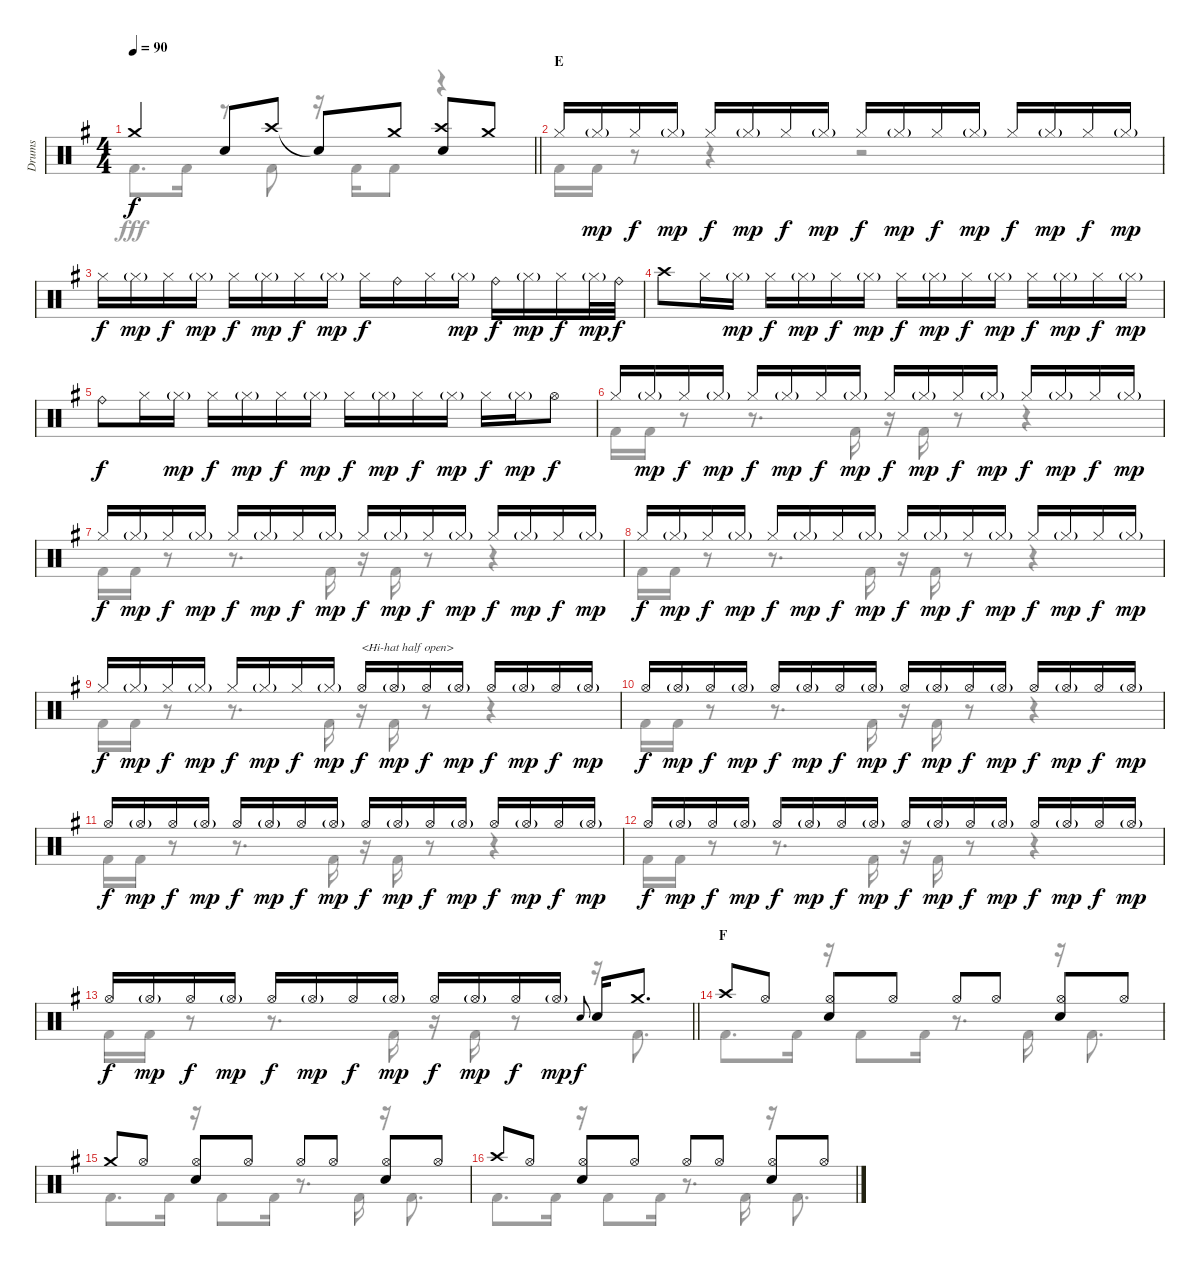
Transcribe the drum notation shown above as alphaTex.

\track ("Drums" "Drums") {instrument percussion}
\staff {score}
\articulation defaults
\voice
\ts (4 4)
\tempo 90
\clef neutral
\barLineRight lightlight
\ks g "Crash medium (hit)".4{dy f} "Snare (hit) 2".8 "Crash high (hit)".8 "Snare (hit)"{t}.8 "Crash medium (hit)".8
("Crash high (hit)" "Snare (hit) 2").8 "Crash medium (hit)".8 |
\section ("" "E")
"Hi-Hat (closed)".16 "Hi-Hat (closed)"{g}.16{dy mp} "Hi-Hat (closed)".16{dy f} "Hi-Hat (closed)"{g}.16{dy mp} "Hi-Hat (closed)".16{dy f} "Hi-Hat (closed)"{g}.16{dy mp} "Hi-Hat (closed)".16{dy f} "Hi-Hat (closed)"{g}.16{dy mp} "Hi-Hat (closed)".16{dy f} "Hi-Hat (closed)"{g}.16{dy mp} "Hi-Hat (closed)".16{dy f} "Hi-Hat (closed)"{g}.16{dy mp} "Hi-Hat (closed)".16{dy f} "Hi-Hat (closed)"{g}.16{dy mp} "Hi-Hat (closed)".16{dy f} "Hi-Hat (closed)"{g}.16{dy mp} |
"Hi-Hat (closed)".16{dy f} "Hi-Hat (closed)"{g}.16{dy mp} "Hi-Hat (closed)".16{dy f} "Hi-Hat (closed)"{g}.16{dy mp} "Hi-Hat (closed)".16{dy f} "Hi-Hat (closed)"{g}.16{dy mp} "Hi-Hat (closed)".16{dy f} "Hi-Hat (closed)"{g}.16{dy mp} "Hi-Hat (closed)".16{dy f} "Ride (bell)".16 "Hi-Hat (closed)".16 "Hi-Hat (closed)"{g}.16{dy mp} "Ride (bell)".16{dy f} "Hi-Hat (closed)"{g}.16{dy mp} "Hi-Hat (closed)".16{dy f} "Hi-Hat (closed)"{g}.32{dy mp} "Ride (bell)".32{dy f} |
"Crash high (hit)".8 "Hi-Hat (closed)".16 "Hi-Hat (closed)"{g}.16{dy mp} "Hi-Hat (closed)".16{dy f} "Hi-Hat (closed)"{g}.16{dy mp} "Hi-Hat (closed)".16{dy f} "Hi-Hat (closed)"{g}.16{dy mp} "Hi-Hat (closed)".16{dy f} "Hi-Hat (closed)"{g}.16{dy mp} "Hi-Hat (closed)".16{dy f} "Hi-Hat (closed)"{g}.16{dy mp} "Hi-Hat (closed)".16{dy f} "Hi-Hat (closed)"{g}.16{dy mp} "Hi-Hat (closed)".16{dy f} "Hi-Hat (closed)"{g}.16{dy mp} |
"Ride (bell)".8{dy f} "Hi-Hat (closed)".16 "Hi-Hat (closed)"{g}.16{dy mp} "Hi-Hat (closed)".16{dy f} "Hi-Hat (closed)"{g}.16{dy mp} "Hi-Hat (closed)".16{dy f} "Hi-Hat (closed)"{g}.16{dy mp} "Hi-Hat (closed)".16{dy f} "Hi-Hat (closed)"{g}.16{dy mp} "Hi-Hat (closed)".16{dy f} "Hi-Hat (closed)"{g}.16{dy mp} "Hi-Hat (closed)".16{dy f} "Hi-Hat (closed)"{g}.16{dy mp} "Hi-Hat (open)".8{dy f} |
"Hi-Hat (closed)".16 "Hi-Hat (closed)"{g}.16{dy mp} "Hi-Hat (closed)".16{dy f} "Hi-Hat (closed)"{g}.16{dy mp} "Hi-Hat (closed)".16{dy f} "Hi-Hat (closed)"{g}.16{dy mp} "Hi-Hat (closed)".16{dy f} "Hi-Hat (closed)"{g}.16{dy mp} "Hi-Hat (closed)".16{dy f} "Hi-Hat (closed)"{g}.16{dy mp} "Hi-Hat (closed)".16{dy f} "Hi-Hat (closed)"{g}.16{dy mp} "Hi-Hat (closed)".16{dy f} "Hi-Hat (closed)"{g}.16{dy mp} "Hi-Hat (closed)".16{dy f} "Hi-Hat (closed)"{g}.16{dy mp} |
"Hi-Hat (closed)".16{dy f} "Hi-Hat (closed)"{g}.16{dy mp} "Hi-Hat (closed)".16{dy f} "Hi-Hat (closed)"{g}.16{dy mp} "Hi-Hat (closed)".16{dy f} "Hi-Hat (closed)"{g}.16{dy mp} "Hi-Hat (closed)".16{dy f} "Hi-Hat (closed)"{g}.16{dy mp} "Hi-Hat (closed)".16{dy f} "Hi-Hat (closed)"{g}.16{dy mp} "Hi-Hat (closed)".16{dy f} "Hi-Hat (closed)"{g}.16{dy mp} "Hi-Hat (closed)".16{dy f} "Hi-Hat (closed)"{g}.16{dy mp} "Hi-Hat (closed)".16{dy f} "Hi-Hat (closed)"{g}.16{dy mp} |
"Hi-Hat (closed)".16{dy f} "Hi-Hat (closed)"{g}.16{dy mp} "Hi-Hat (closed)".16{dy f} "Hi-Hat (closed)"{g}.16{dy mp} "Hi-Hat (closed)".16{dy f} "Hi-Hat (closed)"{g}.16{dy mp} "Hi-Hat (closed)".16{dy f} "Hi-Hat (closed)"{g}.16{dy mp} "Hi-Hat (closed)".16{dy f} "Hi-Hat (closed)"{g}.16{dy mp} "Hi-Hat (closed)".16{dy f} "Hi-Hat (closed)"{g}.16{dy mp} "Hi-Hat (closed)".16{dy f} "Hi-Hat (closed)"{g}.16{dy mp} "Hi-Hat (closed)".16{dy f} "Hi-Hat (closed)"{g}.16{dy mp} |
"Hi-Hat (closed)".16{dy f} "Hi-Hat (closed)"{g}.16{dy mp} "Hi-Hat (closed)".16{dy f} "Hi-Hat (closed)"{g}.16{dy mp} "Hi-Hat (closed)".16{dy f} "Hi-Hat (closed)"{g}.16{dy mp} "Hi-Hat (closed)".16{dy f} "Hi-Hat (closed)"{g}.16{dy mp} "Hi-Hat (open)".16{txt "<Hi-hat half open>" dy f} "Hi-Hat (open)"{g}.16{dy mp} "Hi-Hat (open)".16{dy f} "Hi-Hat (open)"{g}.16{dy mp} "Hi-Hat (open)".16{dy f} "Hi-Hat (open)"{g}.16{dy mp} "Hi-Hat (open)".16{dy f} "Hi-Hat (open)"{g}.16{dy mp} |
"Hi-Hat (open)".16{dy f} "Hi-Hat (open)"{g}.16{dy mp} "Hi-Hat (open)".16{dy f} "Hi-Hat (open)"{g}.16{dy mp} "Hi-Hat (open)".16{dy f} "Hi-Hat (open)"{g}.16{dy mp} "Hi-Hat (open)".16{dy f} "Hi-Hat (open)"{g}.16{dy mp} "Hi-Hat (open)".16{dy f} "Hi-Hat (open)"{g}.16{dy mp} "Hi-Hat (open)".16{dy f} "Hi-Hat (open)"{g}.16{dy mp} "Hi-Hat (open)".16{dy f} "Hi-Hat (open)"{g}.16{dy mp} "Hi-Hat (open)".16{dy f} "Hi-Hat (open)"{g}.16{dy mp} |
"Hi-Hat (open)".16{dy f} "Hi-Hat (open)"{g}.16{dy mp} "Hi-Hat (open)".16{dy f} "Hi-Hat (open)"{g}.16{dy mp} "Hi-Hat (open)".16{dy f} "Hi-Hat (open)"{g}.16{dy mp} "Hi-Hat (open)".16{dy f} "Hi-Hat (open)"{g}.16{dy mp} "Hi-Hat (open)".16{dy f} "Hi-Hat (open)"{g}.16{dy mp} "Hi-Hat (open)".16{dy f} "Hi-Hat (open)"{g}.16{dy mp} "Hi-Hat (open)".16{dy f} "Hi-Hat (open)"{g}.16{dy mp} "Hi-Hat (open)".16{dy f} "Hi-Hat (open)"{g}.16{dy mp} |
"Hi-Hat (open)".16{dy f} "Hi-Hat (open)"{g}.16{dy mp} "Hi-Hat (open)".16{dy f} "Hi-Hat (open)"{g}.16{dy mp} "Hi-Hat (open)".16{dy f} "Hi-Hat (open)"{g}.16{dy mp} "Hi-Hat (open)".16{dy f} "Hi-Hat (open)"{g}.16{dy mp} "Hi-Hat (open)".16{dy f} "Hi-Hat (open)"{g}.16{dy mp} "Hi-Hat (open)".16{dy f} "Hi-Hat (open)"{g}.16{dy mp} "Hi-Hat (open)".16{dy f} "Hi-Hat (open)"{g}.16{dy mp} "Hi-Hat (open)".16{dy f} "Hi-Hat (open)"{g}.16{dy mp} |
\barLineRight lightlight "Hi-Hat (open)".16{dy f} "Hi-Hat (open)"{g}.16{dy mp} "Hi-Hat (open)".16{dy f} "Hi-Hat (open)"{g}.16{dy mp} "Hi-Hat (open)".16{dy f} "Hi-Hat (open)"{g}.16{dy mp} "Hi-Hat (open)".16{dy f} "Hi-Hat (open)"{g}.16{dy mp} "Hi-Hat (open)".16{dy f} "Hi-Hat (open)"{g}.16{dy mp} "Hi-Hat (open)".16{dy f} "Hi-Hat (open)"{g}.16{dy mp} "Snare (hit) 2".8{gr onbeat dy f} "Snare (hit) 2".16 "Crash medium (hit)".8{d}
|
\section ("" "F")
"Crash high (hit)".8 "Hi-Hat (open)".8 ("Hi-Hat (open)" "Snare (hit) 2").8 "Hi-Hat (open)".8 "Hi-Hat (open)".8 "Hi-Hat (open)".8 ("Hi-Hat (open)" "Snare (hit) 2").8 "Hi-Hat (open)".8 |
"Crash medium (hit)".8 "Hi-Hat (open)".8 ("Hi-Hat (open)" "Snare (hit) 2").8 "Hi-Hat (open)".8 "Hi-Hat (open)".8 "Hi-Hat (open)".8 ("Hi-Hat (open)" "Snare (hit) 2").8 "Hi-Hat (open)".8 |
"Crash high (hit)".8 "Hi-Hat (open)".8 ("Hi-Hat (open)" "Snare (hit) 2").8 "Hi-Hat (open)".8 "Hi-Hat (open)".8 "Hi-Hat (open)".8 ("Hi-Hat (open)" "Snare (hit) 2").8 "Hi-Hat (open)".8
\voice
\clef neutral
\ottava regular
\simile none
\barLineRight lightlight
\ks g "Kick (hit) 2".8{d dy fff} "Kick (hit) 2".16
r.8 "Kick (hit) 2".8 r.16 "Kick (hit) 2".16 "Kick (hit) 2".8 r.4 |
"Kick (hit) 2".16 "Kick (hit) 2".16 r.8 r.4 r.2 |
|
|
|
"Kick (hit) 2".16 "Kick (hit) 2".16 r.8 r.8{d} "Kick (hit) 2".16 r.16 "Kick (hit) 2".16 r.8 r.4 |
"Kick (hit) 2".16 "Kick (hit) 2".16 r.8 r.8{d} "Kick (hit) 2".16 r.16 "Kick (hit) 2".16 r.8 r.4 |
"Kick (hit) 2".16 "Kick (hit) 2".16 r.8 r.8{d} "Kick (hit) 2".16 r.16 "Kick (hit) 2".16 r.8 r.4 |
"Kick (hit) 2".16 "Kick (hit) 2".16 r.8 r.8{d} "Kick (hit) 2".16 r.16 "Kick (hit) 2".16 r.8 r.4 |
"Kick (hit) 2".16 "Kick (hit) 2".16 r.8 r.8{d} "Kick (hit) 2".16 r.16 "Kick (hit) 2".16 r.8 r.4 |
"Kick (hit) 2".16 "Kick (hit) 2".16 r.8 r.8{d} "Kick (hit) 2".16 r.16 "Kick (hit) 2".16 r.8 r.4 |
"Kick (hit) 2".16 "Kick (hit) 2".16 r.8 r.8{d} "Kick (hit) 2".16 r.16 "Kick (hit) 2".16 r.8 r.4 |
\barLineRight lightlight "Kick (hit) 2".16 "Kick (hit) 2".16
r.8 r.8{d} "Kick (hit) 2".16 r.16 "Kick (hit) 2".16 r.8 r.16 "Kick (hit) 2".8{d} |
"Kick (hit) 2".8{d} "Kick (hit) 2".16 r.16 "Kick (hit) 2".8 "Kick (hit) 2".16 r.8{d} "Kick (hit) 2".16 r.16 "Kick (hit) 2".8{d} |
"Kick (hit) 2".8{d} "Kick (hit) 2".16 r.16 "Kick (hit) 2".8 "Kick (hit) 2".16 r.8{d} "Kick (hit) 2".16 r.16 "Kick (hit) 2".8{d} |
"Kick (hit) 2".8{d} "Kick (hit) 2".16 r.16 "Kick (hit) 2".8 "Kick (hit) 2".16 r.8{d} "Kick (hit) 2".16 r.16 "Kick (hit) 2".8{d}
